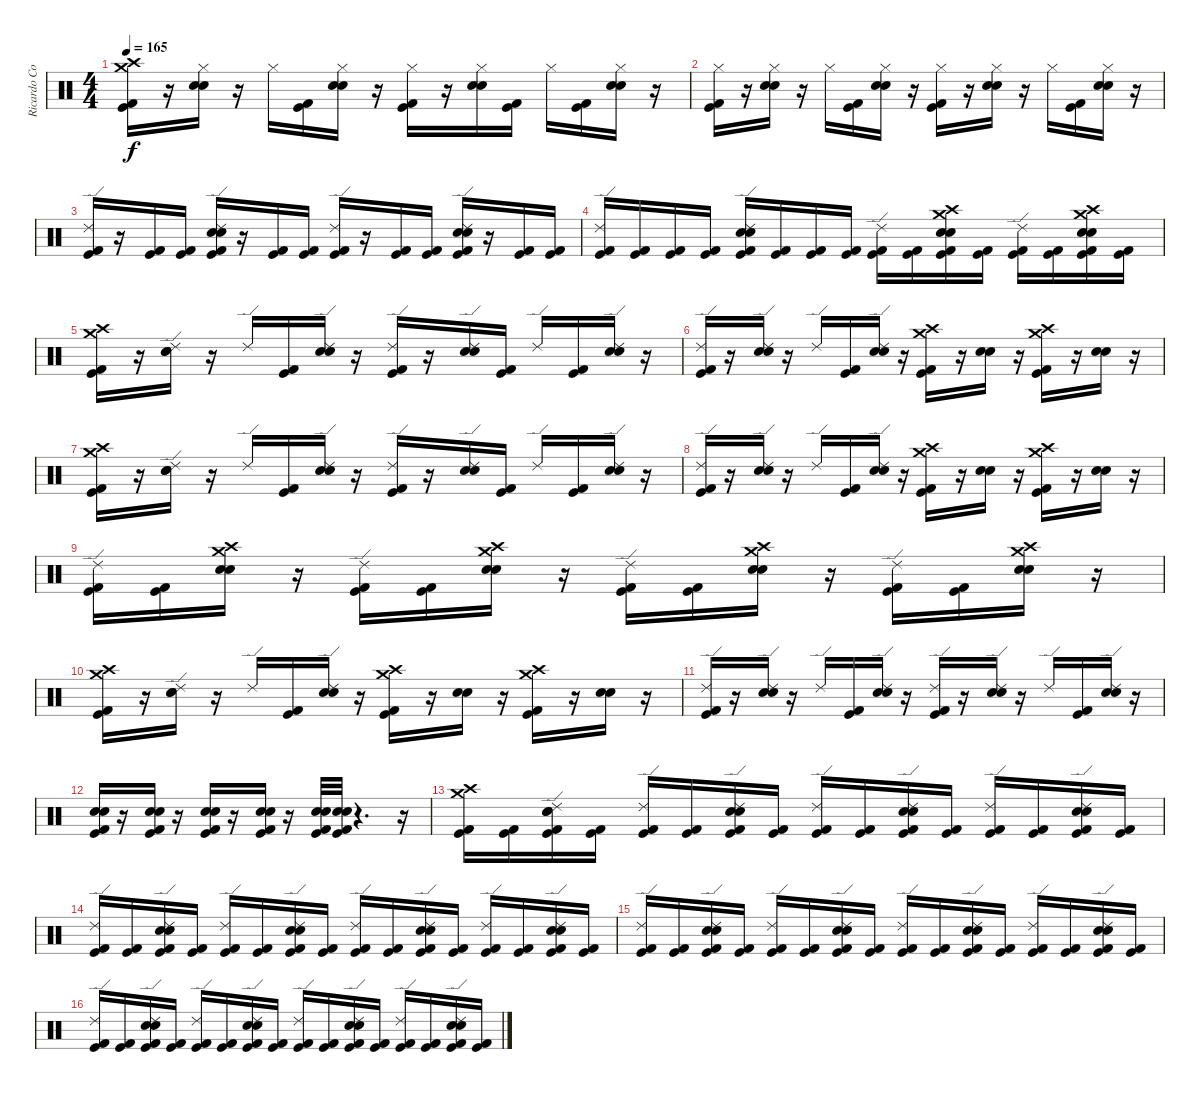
\track ("Ricardo Confessori" "Ricardo Co") {instrument percussion}
\staff {score}
\articulation defaults
\ts (4 4)
\tempo 165
\clef neutral
\ks c
("Crash medium (hit)" "Crash high (hit)" "Kick (hit) 2" "Kick (hit)").16{dy f} r.16 ("Hi-Hat (closed)" "Electric Snare (hit)" "Snare (hit) 2").16 r.16 "Hi-Hat (closed)".16 ("Kick (hit) 2" "Kick (hit)").16 ("Electric Snare (hit)" "Hi-Hat (closed)" "Snare (hit) 2").16 r.16 ("Hi-Hat (closed)" "Kick (hit) 2" "Kick (hit)").16 r.16 ("Hi-Hat (closed)" "Electric Snare (hit)" "Snare (hit) 2").16 ("Kick (hit) 2" "Kick (hit)").16 "Hi-Hat (closed)".16 ("Kick (hit) 2" "Kick (hit)").16 ("Hi-Hat (closed)" "Electric Snare (hit)" "Snare (hit) 2").16 r.16 |
("Hi-Hat (closed)" "Kick (hit) 2" "Kick (hit)").16 r.16 ("Hi-Hat (closed)" "Electric Snare (hit)" "Snare (hit) 2").16 r.16 "Hi-Hat (closed)".16 ("Kick (hit) 2" "Kick (hit)").16 ("Electric Snare (hit)" "Hi-Hat (closed)" "Snare (hit) 2").16 r.16 ("Hi-Hat (closed)" "Kick (hit) 2" "Kick (hit)").16 r.16 ("Hi-Hat (closed)" "Electric Snare (hit)" "Snare (hit) 2").16 r.16 "Hi-Hat (closed)".16 ("Kick (hit) 2" "Kick (hit)").16 ("Hi-Hat (closed)" "Electric Snare (hit)" "Snare (hit) 2").16 r.16 |
("Ride (edge) 2" "Kick (hit) 2" "Kick (hit)").16 r.16 ("Kick (hit) 2" "Kick (hit)").16 ("Kick (hit) 2" "Kick (hit)").16 ("Electric Snare (hit)" "Snare (hit) 2" "Ride (edge) 2" "Kick (hit) 2" "Kick (hit)").16 r.16 ("Kick (hit) 2" "Kick (hit)").16 ("Kick (hit) 2" "Kick (hit)").16 ("Ride (edge) 2" "Kick (hit) 2" "Kick (hit)").16 r.16 ("Kick (hit) 2" "Kick (hit)").16 ("Kick (hit) 2" "Kick (hit)").16 ("Electric Snare (hit)" "Snare (hit) 2" "Ride (edge) 2" "Kick (hit) 2" "Kick (hit)").16 r.16 ("Kick (hit) 2" "Kick (hit)").16 ("Kick (hit) 2" "Kick (hit)").16 |
("Ride (edge) 2" "Kick (hit) 2" "Kick (hit)").16 ("Kick (hit) 2" "Kick (hit)").16 ("Kick (hit) 2" "Kick (hit)").16 ("Kick (hit) 2" "Kick (hit)").16 ("Electric Snare (hit)" "Snare (hit) 2" "Ride (edge) 2" "Kick (hit) 2" "Kick (hit)").16 ("Kick (hit) 2" "Kick (hit)").16 ("Kick (hit) 2" "Kick (hit)").16 ("Kick (hit) 2" "Kick (hit)").16 ("Ride (edge) 2" "Kick (hit) 2" "Kick (hit)").16 ("Kick (hit) 2" "Kick (hit)").16 ("Crash high (hit)" "Electric Snare (hit)" "Snare (hit) 2" "Crash medium (hit)" "Kick (hit) 2" "Kick (hit)").16 ("Kick (hit) 2" "Kick (hit)").16 ("Ride (edge) 2" "Kick (hit) 2" "Kick (hit)").16 ("Kick (hit) 2" "Kick (hit)").16 ("Electric Snare (hit)" "Snare (hit) 2" "Crash high (hit)" "Crash medium (hit)" "Kick (hit) 2" "Kick (hit)").16 ("Kick (hit) 2" "Kick (hit)").16 |
("Crash high (hit)" "Crash medium (hit)" "Kick (hit) 2" "Kick (hit)").16 r.16 ("Ride (edge) 2" "Electric Snare (hit)" "Snare (hit) 2").16 r.16 "Ride (edge) 2".16 ("Kick (hit) 2" "Kick (hit)").16 ("Ride (edge) 2" "Electric Snare (hit)" "Snare (hit) 2").16 r.16 ("Ride (edge) 2" "Kick (hit) 2" "Kick (hit)").16 r.16 ("Ride (edge) 2" "Electric Snare (hit)" "Snare (hit) 2").16 ("Kick (hit) 2" "Kick (hit)").16 "Ride (edge) 2".16 ("Kick (hit) 2" "Kick (hit)").16 ("Ride (edge) 2" "Electric Snare (hit)" "Snare (hit) 2").16 r.16 |
("Ride (edge) 2" "Kick (hit) 2" "Kick (hit)").16 r.16 ("Ride (edge) 2" "Electric Snare (hit)" "Snare (hit) 2").16 r.16 "Ride (edge) 2".16 ("Kick (hit) 2" "Kick (hit)").16 ("Ride (edge) 2" "Electric Snare (hit)" "Snare (hit) 2").16 r.16 ("Crash high (hit)" "Crash medium (hit)" "Kick (hit) 2" "Kick (hit)").16 r.16 ("Electric Snare (hit)" "Snare (hit) 2").16 r.16 ("Crash high (hit)" "Crash medium (hit)" "Kick (hit)" "Kick (hit) 2").16 r.16 ("Snare (hit) 2" "Electric Snare (hit)").16 r.16 |
("Crash medium (hit)" "Crash high (hit)" "Kick (hit) 2" "Kick (hit)").16 r.16 ("Ride (edge) 2" "Electric Snare (hit)" "Snare (hit) 2").16 r.16 "Ride (edge) 2".16 ("Kick (hit) 2" "Kick (hit)").16 ("Ride (edge) 2" "Electric Snare (hit)" "Snare (hit) 2").16 r.16 ("Ride (edge) 2" "Kick (hit) 2" "Kick (hit)").16 r.16 ("Ride (edge) 2" "Electric Snare (hit)" "Snare (hit) 2").16 ("Kick (hit) 2" "Kick (hit)").16 "Ride (edge) 2".16 ("Kick (hit) 2" "Kick (hit)").16 ("Ride (edge) 2" "Electric Snare (hit)" "Snare (hit) 2").16 r.16 |
("Ride (edge) 2" "Kick (hit) 2" "Kick (hit)").16 r.16 ("Ride (edge) 2" "Electric Snare (hit)" "Snare (hit) 2").16 r.16 "Ride (edge) 2".16 ("Kick (hit) 2" "Kick (hit)").16 ("Ride (edge) 2" "Electric Snare (hit)" "Snare (hit) 2").16 r.16 ("Crash high (hit)" "Crash medium (hit)" "Kick (hit) 2" "Kick (hit)").16 r.16 ("Electric Snare (hit)" "Snare (hit) 2").16 r.16 ("Crash high (hit)" "Crash medium (hit)" "Kick (hit)" "Kick (hit) 2").16 r.16 ("Electric Snare (hit)" "Snare (hit) 2").16 r.16 |
("Ride (edge) 2" "Kick (hit) 2" "Kick (hit)").16 ("Kick (hit) 2" "Kick (hit)").16 ("Crash high (hit)" "Crash medium (hit)" "Electric Snare (hit)" "Snare (hit) 2").16 r.16 ("Ride (edge) 2" "Kick (hit) 2" "Kick (hit)").16 ("Kick (hit) 2" "Kick (hit)").16 ("Crash high (hit)" "Crash medium (hit)" "Electric Snare (hit)" "Snare (hit) 2").16 r.16 ("Ride (edge) 2" "Kick (hit) 2" "Kick (hit)").16 ("Kick (hit) 2" "Kick (hit)").16 ("Crash high (hit)" "Crash medium (hit)" "Electric Snare (hit)" "Snare (hit) 2").16 r.16 ("Ride (edge) 2" "Kick (hit) 2" "Kick (hit)").16 ("Kick (hit) 2" "Kick (hit)").16 ("Crash medium (hit)" "Crash high (hit)" "Electric Snare (hit)" "Snare (hit) 2").16 r.16 |
("Crash medium (hit)" "Crash high (hit)" "Kick (hit) 2" "Kick (hit)").16 r.16 ("Ride (edge) 2" "Electric Snare (hit)" "Snare (hit) 2").16 r.16 "Ride (edge) 2".16 ("Kick (hit) 2" "Kick (hit)").16 ("Ride (edge) 2" "Electric Snare (hit)" "Snare (hit) 2").16 r.16 ("Crash high (hit)" "Crash medium (hit)" "Kick (hit) 2" "Kick (hit)").16 r.16 ("Electric Snare (hit)" "Snare (hit) 2").16 r.16 ("Crash high (hit)" "Crash medium (hit)" "Kick (hit) 2" "Kick (hit)").16 r.16 ("Electric Snare (hit)" "Snare (hit) 2").16 r.16 |
("Ride (edge) 2" "Kick (hit) 2" "Kick (hit)").16 r.16 ("Ride (edge) 2" "Electric Snare (hit)" "Snare (hit) 2").16 r.16 "Ride (edge) 2".16 ("Kick (hit)" "Kick (hit) 2").16 ("Ride (edge) 2" "Electric Snare (hit)" "Snare (hit) 2").16 r.16 ("Ride (edge) 2" "Kick (hit) 2" "Kick (hit)").16 r.16 ("Ride (edge) 2" "Electric Snare (hit)" "Snare (hit) 2").16 r.16 "Ride (edge) 2".16 ("Kick (hit)" "Kick (hit) 2").16 ("Ride (edge) 2" "Electric Snare (hit)" "Snare (hit) 2").16 r.16 |
("Electric Snare (hit)" "Snare (hit) 2" "Kick (hit) 2" "Kick (hit)").16 r.16 ("Electric Snare (hit)" "Snare (hit) 2" "Kick (hit) 2" "Kick (hit)").16 r.16 ("Electric Snare (hit)" "Snare (hit) 2" "Kick (hit) 2" "Kick (hit)").16 r.16 ("Electric Snare (hit)" "Snare (hit) 2" "Kick (hit) 2" "Kick (hit)").16 r.16 ("Kick (hit) 2" "Kick (hit)" "Electric Snare (hit)" "Snare (hit) 2").32 ("Kick (hit) 2" "Kick (hit)" "Electric Snare (hit)" "Snare (hit) 2").32 r.4{d} r.16 |
("Crash high (hit)" "Crash medium (hit)" "Kick (hit) 2" "Kick (hit)").16 ("Kick (hit) 2" "Kick (hit)").16 ("Ride (edge) 2" "Snare (hit) 2" "Electric Snare (hit)" "Kick (hit) 2" "Kick (hit)").16 ("Kick (hit) 2" "Kick (hit)").16 ("Ride (edge) 2" "Kick (hit) 2" "Kick (hit)").16 ("Kick (hit) 2" "Kick (hit)").16 ("Ride (edge) 2" "Electric Snare (hit)" "Snare (hit) 2" "Kick (hit) 2" "Kick (hit)").16 ("Kick (hit) 2" "Kick (hit)").16 ("Ride (edge) 2" "Kick (hit) 2" "Kick (hit)").16 ("Kick (hit) 2" "Kick (hit)").16 ("Ride (edge) 2" "Snare (hit) 2" "Electric Snare (hit)" "Kick (hit) 2" "Kick (hit)").16 ("Kick (hit) 2" "Kick (hit)").16 ("Ride (edge) 2" "Kick (hit) 2" "Kick (hit)").16 ("Kick (hit) 2" "Kick (hit)").16 ("Ride (edge) 2" "Electric Snare (hit)" "Snare (hit) 2" "Kick (hit) 2" "Kick (hit)").16 ("Kick (hit) 2" "Kick (hit)").16 |
("Ride (edge) 2" "Kick (hit) 2" "Kick (hit)").16 ("Kick (hit) 2" "Kick (hit)").16 ("Ride (edge) 2" "Snare (hit) 2" "Electric Snare (hit)" "Kick (hit) 2" "Kick (hit)").16 ("Kick (hit) 2" "Kick (hit)").16 ("Ride (edge) 2" "Kick (hit) 2" "Kick (hit)").16 ("Kick (hit) 2" "Kick (hit)").16 ("Ride (edge) 2" "Electric Snare (hit)" "Snare (hit) 2" "Kick (hit) 2" "Kick (hit)").16 ("Kick (hit) 2" "Kick (hit)").16 ("Ride (edge) 2" "Kick (hit) 2" "Kick (hit)").16 ("Kick (hit) 2" "Kick (hit)").16 ("Ride (edge) 2" "Snare (hit) 2" "Electric Snare (hit)" "Kick (hit) 2" "Kick (hit)").16 ("Kick (hit) 2" "Kick (hit)").16 ("Ride (edge) 2" "Kick (hit) 2" "Kick (hit)").16 ("Kick (hit) 2" "Kick (hit)").16 ("Ride (edge) 2" "Electric Snare (hit)" "Snare (hit) 2" "Kick (hit) 2" "Kick (hit)").16 ("Kick (hit) 2" "Kick (hit)").16 |
("Ride (edge) 2" "Kick (hit) 2" "Kick (hit)").16 ("Kick (hit) 2" "Kick (hit)").16 ("Ride (edge) 2" "Snare (hit) 2" "Electric Snare (hit)" "Kick (hit) 2" "Kick (hit)").16 ("Kick (hit) 2" "Kick (hit)").16 ("Ride (edge) 2" "Kick (hit) 2" "Kick (hit)").16 ("Kick (hit) 2" "Kick (hit)").16 ("Ride (edge) 2" "Electric Snare (hit)" "Snare (hit) 2" "Kick (hit) 2" "Kick (hit)").16 ("Kick (hit) 2" "Kick (hit)").16 ("Ride (edge) 2" "Kick (hit) 2" "Kick (hit)").16 ("Kick (hit) 2" "Kick (hit)").16 ("Ride (edge) 2" "Snare (hit) 2" "Electric Snare (hit)" "Kick (hit) 2" "Kick (hit)").16 ("Kick (hit) 2" "Kick (hit)").16 ("Ride (edge) 2" "Kick (hit) 2" "Kick (hit)").16 ("Kick (hit) 2" "Kick (hit)").16 ("Ride (edge) 2" "Electric Snare (hit)" "Snare (hit) 2" "Kick (hit) 2" "Kick (hit)").16 ("Kick (hit) 2" "Kick (hit)").16 |
("Ride (edge) 2" "Kick (hit) 2" "Kick (hit)").16 ("Kick (hit) 2" "Kick (hit)").16 ("Ride (edge) 2" "Snare (hit) 2" "Electric Snare (hit)" "Kick (hit) 2" "Kick (hit)").16 ("Kick (hit) 2" "Kick (hit)").16 ("Ride (edge) 2" "Kick (hit) 2" "Kick (hit)").16 ("Kick (hit) 2" "Kick (hit)").16 ("Ride (edge) 2" "Electric Snare (hit)" "Snare (hit) 2" "Kick (hit) 2" "Kick (hit)").16 ("Kick (hit) 2" "Kick (hit)").16 ("Ride (edge) 2" "Kick (hit) 2" "Kick (hit)").16 ("Kick (hit) 2" "Kick (hit)").16 ("Ride (edge) 2" "Snare (hit) 2" "Electric Snare (hit)" "Kick (hit) 2" "Kick (hit)").16 ("Kick (hit) 2" "Kick (hit)").16 ("Ride (edge) 2" "Kick (hit) 2" "Kick (hit)").16 ("Kick (hit) 2" "Kick (hit)").16 ("Ride (edge) 2" "Electric Snare (hit)" "Snare (hit) 2" "Kick (hit) 2" "Kick (hit)").16 ("Kick (hit) 2" "Kick (hit)").16
